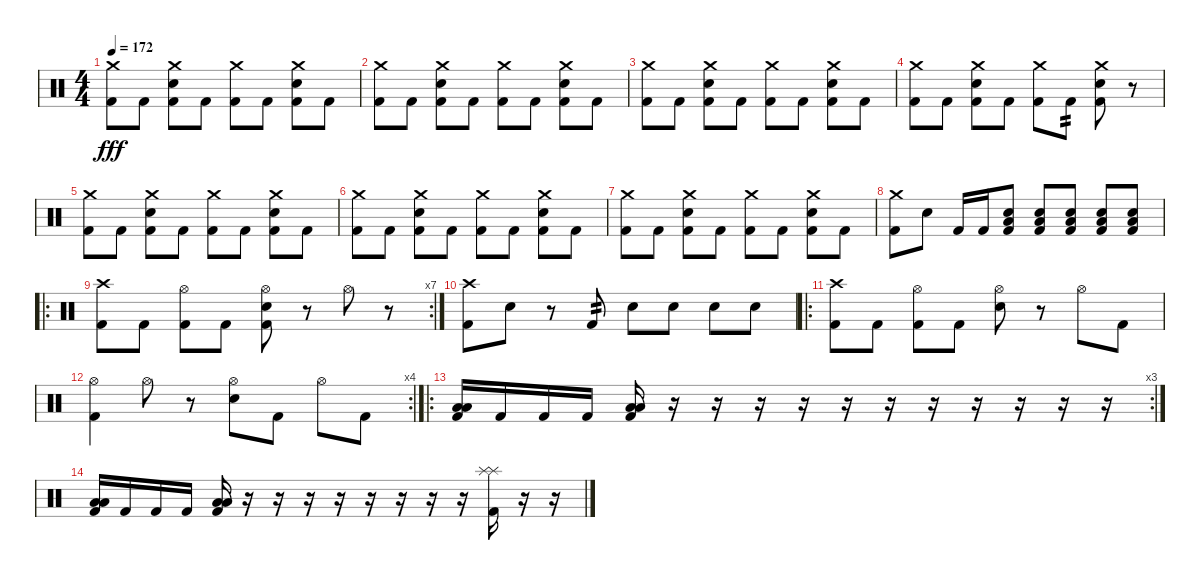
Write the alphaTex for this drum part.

\track (" " " ") {instrument percussion}
\staff {score}
\articulation defaults
\ts (4 4)
\tempo 172
\clef neutral
\ks c
("Crash medium (hit)" "Kick (hit) 2").8{dy fff} "Kick (hit) 2".8 ("Crash medium (hit)" "Snare (hit) 2" "Kick (hit) 2").8 "Kick (hit) 2".8 ("Crash medium (hit)" "Kick (hit) 2").8 "Kick (hit) 2".8 ("Crash medium (hit)" "Snare (hit) 2" "Kick (hit) 2").8 "Kick (hit) 2".8 |
("Crash medium (hit)" "Kick (hit) 2").8 "Kick (hit) 2".8 ("Crash medium (hit)" "Snare (hit) 2" "Kick (hit) 2").8 "Kick (hit) 2".8 ("Crash medium (hit)" "Kick (hit) 2").8 "Kick (hit) 2".8 ("Crash medium (hit)" "Snare (hit) 2" "Kick (hit) 2").8 "Kick (hit) 2".8 |
("Crash medium (hit)" "Kick (hit) 2").8 "Kick (hit) 2".8 ("Crash medium (hit)" "Snare (hit) 2" "Kick (hit) 2").8 "Kick (hit) 2".8 ("Crash medium (hit)" "Kick (hit) 2").8 "Kick (hit) 2".8 ("Crash medium (hit)" "Snare (hit) 2" "Kick (hit) 2").8 "Kick (hit) 2".8 |
("Crash medium (hit)" "Kick (hit) 2").8 "Kick (hit) 2".8 ("Crash medium (hit)" "Snare (hit) 2" "Kick (hit) 2").8 "Kick (hit) 2".8 ("Crash medium (hit)" "Kick (hit) 2").8 "Kick (hit) 2".8{tp 2} ("Crash medium (hit)" "Snare (hit) 2" "Kick (hit) 2").8 r.8 |
("Crash medium (hit)" "Kick (hit) 2").8 "Kick (hit) 2".8 ("Crash medium (hit)" "Snare (hit) 2" "Kick (hit) 2").8 "Kick (hit) 2".8 ("Crash medium (hit)" "Kick (hit) 2").8 "Kick (hit) 2".8 ("Crash medium (hit)" "Snare (hit) 2" "Kick (hit) 2").8 "Kick (hit) 2".8 |
("Crash medium (hit)" "Kick (hit) 2").8 "Kick (hit) 2".8 ("Crash medium (hit)" "Snare (hit) 2" "Kick (hit) 2").8 "Kick (hit) 2".8 ("Crash medium (hit)" "Kick (hit) 2").8 "Kick (hit) 2".8 ("Crash medium (hit)" "Snare (hit) 2" "Kick (hit) 2").8 "Kick (hit) 2".8 |
("Crash medium (hit)" "Kick (hit) 2").8 "Kick (hit) 2".8 ("Crash medium (hit)" "Snare (hit) 2" "Kick (hit) 2").8 "Kick (hit) 2".8 ("Crash medium (hit)" "Kick (hit) 2").8 "Kick (hit) 2".8 ("Crash medium (hit)" "Snare (hit) 2" "Kick (hit) 2").8 "Kick (hit) 2".8 |
("Crash medium (hit)" "Kick (hit) 2").8 "Snare (hit) 2".8 "Kick (hit) 2".16 "Kick (hit) 2".16 ("Snare (hit) 2" "Low Floor Tom (hit)" "Kick (hit) 2").8 ("Snare (hit) 2" "Low Floor Tom (hit)" "Kick (hit) 2").8 ("Snare (hit) 2" "Low Floor Tom (hit)" "Kick (hit) 2").8 ("Snare (hit) 2" "Low Floor Tom (hit)" "Kick (hit) 2").8 ("Snare (hit) 2" "Low Floor Tom (hit)" "Kick (hit) 2").8 |
\ro
\rc 7
("Crash high (hit)" "Kick (hit) 2").8 "Kick (hit) 2".8 ("Hi-Hat (open)" "Kick (hit) 2").8 "Kick (hit) 2".8 ("Hi-Hat (open)" "Snare (hit) 2" "Kick (hit) 2").8 r.8 "Hi-Hat (open)".8 r.8 |
("Crash high (hit)" "Kick (hit) 2").8 "Snare (hit) 2".8 r.8 "Kick (hit) 2".8{tp 2} "Snare (hit) 2".8 "Snare (hit) 2".8 "Snare (hit) 2".8 "Snare (hit) 2".8 |
\ro
("Crash high (hit)" "Kick (hit) 2").8 "Kick (hit) 2".8 ("Hi-Hat (open)" "Kick (hit) 2").8 "Kick (hit) 2".8 ("Hi-Hat (open)" "Snare (hit) 2").8 r.8 "Hi-Hat (open)".8 "Kick (hit) 2".8 |
\rc 4
("Hi-Hat (open)" "Kick (hit) 2").4 "Hi-Hat (open)".8 r.8 ("Hi-Hat (open)" "Snare (hit) 2").8 "Kick (hit) 2".8 "Hi-Hat (open)".8 "Kick (hit) 2".8 |
\ro
\rc 3
("Low Tom (hit)" "Low Floor Tom (hit)" "Kick (hit) 2").16 "Kick (hit) 2".16 "Kick (hit) 2".16 "Kick (hit) 2".16 ("Low Tom (hit)" "Low Floor Tom (hit)" "Kick (hit) 2").16 r.16 r.16 r.16 r.16 r.16 r.16 r.16 r.16 r.16 r.16 r.16 |
("Low Tom (hit)" "Low Floor Tom (hit)" "Kick (hit) 2").16 "Kick (hit) 2".16 "Kick (hit) 2".16 "Kick (hit) 2".16 ("Low Tom (hit)" "Low Floor Tom (hit)" "Kick (hit) 2").16 r.16 r.16 r.16 r.16 r.16 r.16 r.16 r.16 ("Splash (hit)" "Splash (hit)" "Kick (hit) 2").16 r.16 r.16
